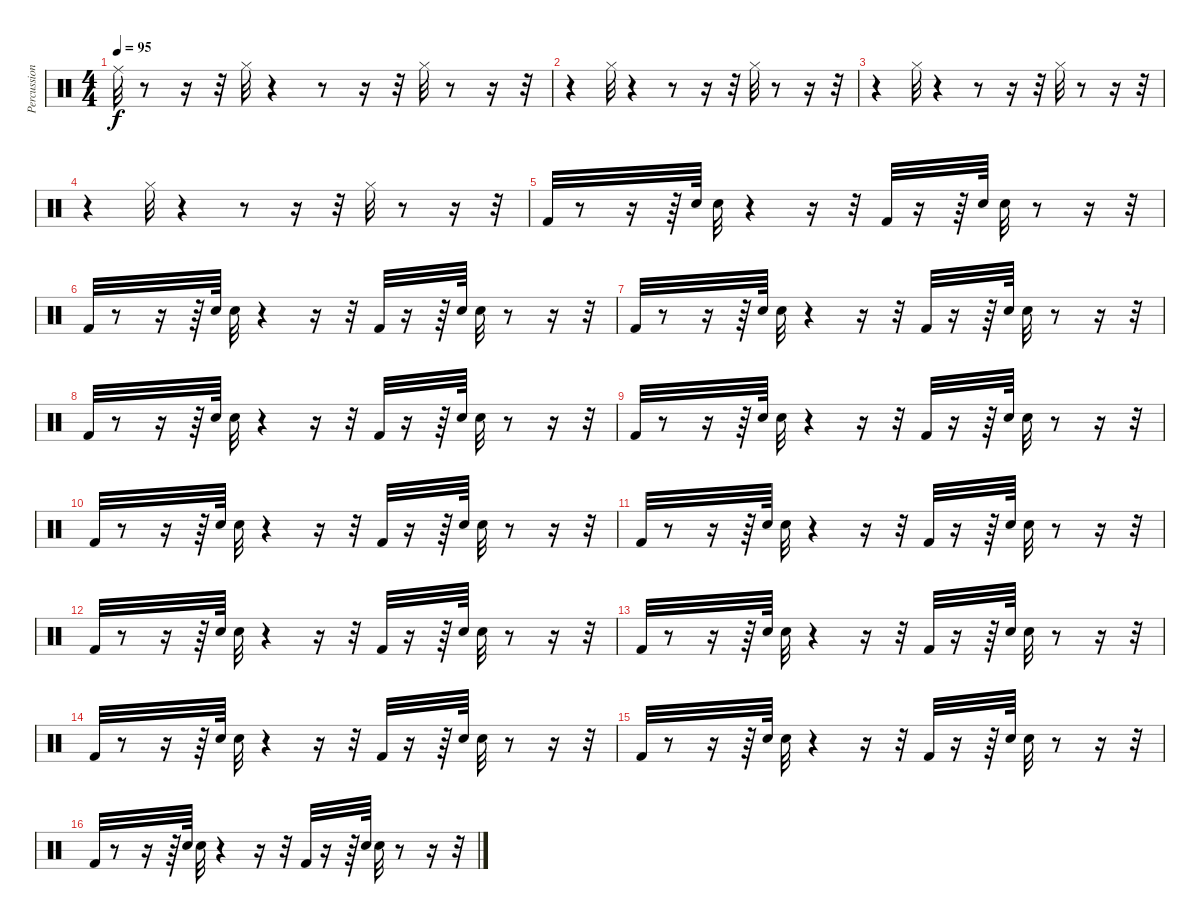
\track ("Percussions" "Percussion") {instrument percussion}
\staff {score}
\articulation defaults
\ts (4 4)
\tempo 95
\clef neutral
\ks c "Ride (middle)".32{dy f}
r.8 r.16 r.32 "Hi-Hat (closed)".32 r.4 r.8 r.16 r.32 "Hi-Hat (closed)".32 r.8 r.16 r.32 |
r.4 "Hi-Hat (closed)".32 r.4 r.8 r.16 r.32 "Hi-Hat (closed)".32 r.8 r.16 r.32 |
r.4 "Hi-Hat (closed)".32 r.4 r.8 r.16 r.32 "Hi-Hat (closed)".32 r.8 r.16 r.32 |
r.4 "Hi-Hat (closed)".32 r.4 r.8 r.16 r.32 "Hi-Hat (closed)".32 r.8 r.16 r.32 |
"Kick (hit) 2".32 r.8 r.16 r.64 "Snare (hit) 2".64 "Snare (hit) 2".32 r.4 r.16 r.32 "Kick (hit) 2".32 r.16 r.64 "Snare (hit) 2".64 "Snare (hit) 2".32 r.8 r.16 r.32 |
"Kick (hit) 2".32 r.8 r.16 r.64 "Snare (hit) 2".64 "Snare (hit) 2".32 r.4 r.16 r.32 "Kick (hit) 2".32 r.16 r.64 "Snare (hit) 2".64 "Snare (hit) 2".32 r.8 r.16 r.32 |
"Kick (hit) 2".32 r.8 r.16 r.64 "Snare (hit) 2".64 "Snare (hit) 2".32 r.4 r.16 r.32 "Kick (hit) 2".32 r.16 r.64 "Snare (hit) 2".64 "Snare (hit) 2".32 r.8 r.16 r.32 |
"Kick (hit) 2".32 r.8 r.16 r.64 "Snare (hit) 2".64 "Snare (hit) 2".32 r.4 r.16 r.32 "Kick (hit) 2".32 r.16 r.64 "Snare (hit) 2".64 "Snare (hit) 2".32 r.8 r.16 r.32 |
"Kick (hit) 2".32 r.8 r.16 r.64 "Snare (hit) 2".64 "Snare (hit) 2".32 r.4 r.16 r.32 "Kick (hit) 2".32 r.16 r.64 "Snare (hit) 2".64 "Snare (hit) 2".32 r.8 r.16 r.32 |
"Kick (hit) 2".32 r.8 r.16 r.64 "Snare (hit) 2".64 "Snare (hit) 2".32 r.4 r.16 r.32 "Kick (hit) 2".32 r.16 r.64 "Snare (hit) 2".64 "Snare (hit) 2".32 r.8 r.16 r.32 |
"Kick (hit) 2".32 r.8 r.16 r.64 "Snare (hit) 2".64 "Snare (hit) 2".32 r.4 r.16 r.32 "Kick (hit) 2".32 r.16 r.64 "Snare (hit) 2".64 "Snare (hit) 2".32 r.8 r.16 r.32 |
"Kick (hit) 2".32 r.8 r.16 r.64 "Snare (hit) 2".64 "Snare (hit) 2".32 r.4 r.16 r.32 "Kick (hit) 2".32 r.16 r.64 "Snare (hit) 2".64 "Snare (hit) 2".32 r.8 r.16 r.32 |
"Kick (hit) 2".32 r.8 r.16 r.64 "Snare (hit) 2".64 "Snare (hit) 2".32 r.4 r.16 r.32 "Kick (hit) 2".32 r.16 r.64 "Snare (hit) 2".64 "Snare (hit) 2".32 r.8 r.16 r.32 |
"Kick (hit) 2".32 r.8 r.16 r.64 "Snare (hit) 2".64 "Snare (hit) 2".32 r.4 r.16 r.32 "Kick (hit) 2".32 r.16 r.64 "Snare (hit) 2".64 "Snare (hit) 2".32 r.8 r.16 r.32 |
"Kick (hit) 2".32 r.8 r.16 r.64 "Snare (hit) 2".64 "Snare (hit) 2".32 r.4 r.16 r.32 "Kick (hit) 2".32 r.16 r.64 "Snare (hit) 2".64 "Snare (hit) 2".32 r.8 r.16 r.32 |
"Kick (hit) 2".32 r.8 r.16 r.64 "Snare (hit) 2".64 "Snare (hit) 2".32 r.4 r.16 r.32 "Kick (hit) 2".32 r.16 r.64 "Snare (hit) 2".64 "Snare (hit) 2".32 r.8 r.16 r.32
